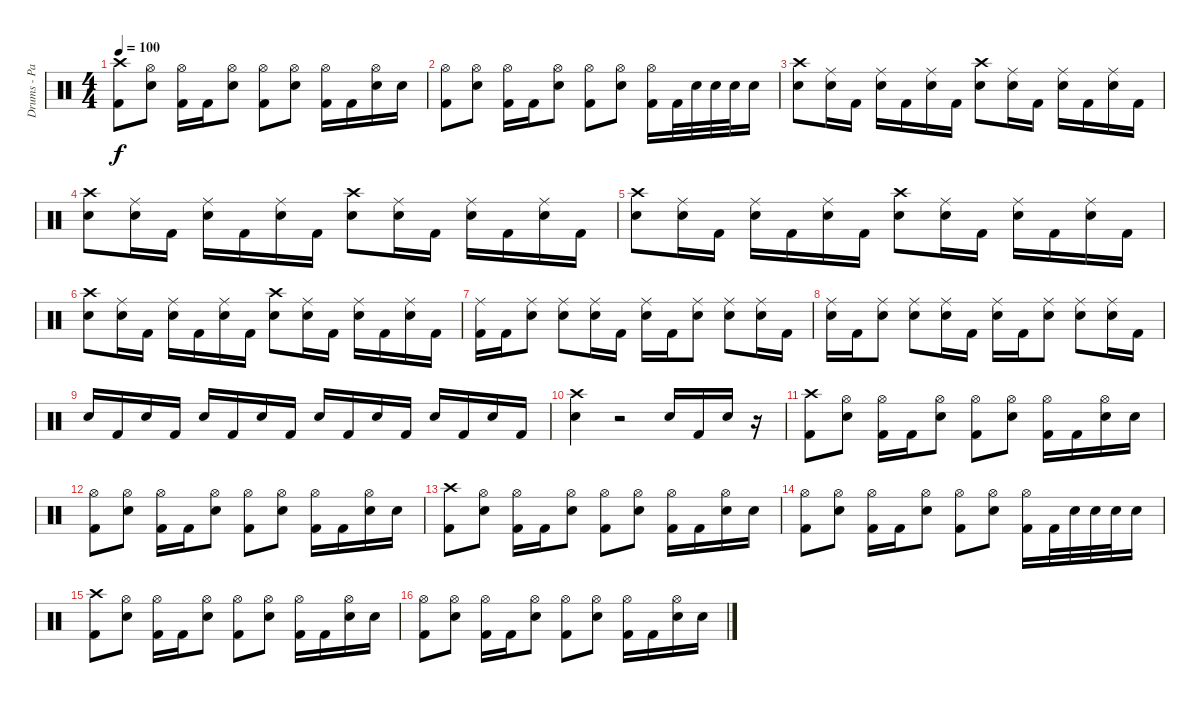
\track ("Drums - Pat Thetic" "Drums - Pa") {instrument percussion}
\staff {score}
\articulation defaults
\ts (4 4)
\tempo 100
\clef neutral
\ks c
("Crash high (hit)" "Kick (hit) 2").8{dy f} ("Hi-Hat (open)" "Electric Snare (hit)").8 ("Hi-Hat (open)" "Kick (hit) 2").16 "Kick (hit) 2".16 ("Hi-Hat (open)" "Electric Snare (hit)").8 ("Hi-Hat (open)" "Kick (hit) 2").8 ("Hi-Hat (open)" "Electric Snare (hit)").8 ("Hi-Hat (open)" "Kick (hit) 2").16 "Kick (hit) 2".16 ("Hi-Hat (open)" "Electric Snare (hit)").16 "Electric Snare (hit)".16 |
("Hi-Hat (open)" "Kick (hit) 2").8 ("Hi-Hat (open)" "Electric Snare (hit)").8 ("Hi-Hat (open)" "Kick (hit) 2").16 "Kick (hit) 2".16 ("Hi-Hat (open)" "Electric Snare (hit)").8 ("Hi-Hat (open)" "Kick (hit) 2").8 ("Hi-Hat (open)" "Electric Snare (hit)").8 ("Hi-Hat (open)" "Kick (hit) 2").16 "Kick (hit) 2".32 "Electric Snare (hit)".32 "Electric Snare (hit)".32 "Electric Snare (hit)".32 "Electric Snare (hit)".16 |
("Crash high (hit)" "Electric Snare (hit)").8 ("Ride (middle)" "Electric Snare (hit)").16 "Kick (hit) 2".16 ("Ride (middle)" "Electric Snare (hit)").16 "Kick (hit) 2".16 ("Ride (middle)" "Electric Snare (hit)").16 "Kick (hit) 2".16 ("Crash high (hit)" "Electric Snare (hit)").8 ("Ride (middle)" "Electric Snare (hit)").16 "Kick (hit) 2".16 ("Ride (middle)" "Electric Snare (hit)").16 "Kick (hit) 2".16 ("Ride (middle)" "Electric Snare (hit)").16 "Kick (hit) 2".16 |
("Crash high (hit)" "Electric Snare (hit)").8 ("Ride (middle)" "Electric Snare (hit)").16 "Kick (hit) 2".16 ("Ride (middle)" "Electric Snare (hit)").16 "Kick (hit) 2".16 ("Ride (middle)" "Electric Snare (hit)").16 "Kick (hit) 2".16 ("Crash high (hit)" "Electric Snare (hit)").8 ("Ride (middle)" "Electric Snare (hit)").16 "Kick (hit) 2".16 ("Ride (middle)" "Electric Snare (hit)").16 "Kick (hit) 2".16 ("Ride (middle)" "Electric Snare (hit)").16 "Kick (hit) 2".16 |
("Crash high (hit)" "Electric Snare (hit)").8 ("Ride (middle)" "Electric Snare (hit)").16 "Kick (hit) 2".16 ("Ride (middle)" "Electric Snare (hit)").16 "Kick (hit) 2".16 ("Ride (middle)" "Electric Snare (hit)").16 "Kick (hit) 2".16 ("Crash high (hit)" "Electric Snare (hit)").8 ("Ride (middle)" "Electric Snare (hit)").16 "Kick (hit) 2".16 ("Ride (middle)" "Electric Snare (hit)").16 "Kick (hit) 2".16 ("Ride (middle)" "Electric Snare (hit)").16 "Kick (hit) 2".16 |
("Crash high (hit)" "Electric Snare (hit)").8 ("Ride (middle)" "Electric Snare (hit)").16 "Kick (hit) 2".16 ("Ride (middle)" "Electric Snare (hit)").16 "Kick (hit) 2".16 ("Ride (middle)" "Electric Snare (hit)").16 "Kick (hit) 2".16 ("Crash high (hit)" "Electric Snare (hit)").8 ("Ride (middle)" "Electric Snare (hit)").16 "Kick (hit) 2".16 ("Ride (middle)" "Electric Snare (hit)").16 "Kick (hit) 2".16 ("Ride (middle)" "Electric Snare (hit)").16 "Kick (hit) 2".16 |
("Ride (middle)" "Kick (hit) 2").16 "Kick (hit) 2".16 ("Ride (middle)" "Electric Snare (hit)").8 ("Ride (middle)" "Electric Snare (hit)").8 ("Ride (middle)" "Electric Snare (hit)").16 "Kick (hit) 2".16 ("Ride (middle)" "Electric Snare (hit)").16 "Kick (hit) 2".16 ("Ride (middle)" "Electric Snare (hit)").8 ("Ride (middle)" "Electric Snare (hit)").8 ("Ride (middle)" "Electric Snare (hit)").16 "Kick (hit) 2".16 |
("Ride (middle)" "Electric Snare (hit)").16 "Kick (hit) 2".16 ("Ride (middle)" "Electric Snare (hit)").8 ("Ride (middle)" "Electric Snare (hit)").8 ("Ride (middle)" "Electric Snare (hit)").16 "Kick (hit) 2".16 ("Ride (middle)" "Electric Snare (hit)").16 "Kick (hit) 2".16 ("Ride (middle)" "Electric Snare (hit)").8 ("Ride (middle)" "Electric Snare (hit)").8 ("Ride (middle)" "Electric Snare (hit)").16 "Kick (hit) 2".16 |
"Electric Snare (hit)".16 "Kick (hit) 2".16 "Electric Snare (hit)".16 "Kick (hit) 2".16 "Electric Snare (hit)".16 "Kick (hit) 2".16 "Electric Snare (hit)".16 "Kick (hit) 2".16 "Electric Snare (hit)".16 "Kick (hit) 2".16 "Electric Snare (hit)".16 "Kick (hit) 2".16 "Electric Snare (hit)".16 "Kick (hit) 2".16 "Electric Snare (hit)".16 "Kick (hit) 2".16 |
("Crash high (hit)" "Electric Snare (hit)").4 r.2 "Electric Snare (hit)".16 "Kick (hit) 2".16 "Electric Snare (hit)".16 r.16 |
("Crash high (hit)" "Kick (hit) 2").8 ("Hi-Hat (open)" "Electric Snare (hit)").8 ("Hi-Hat (open)" "Kick (hit) 2").16 "Kick (hit) 2".16 ("Hi-Hat (open)" "Electric Snare (hit)").8 ("Hi-Hat (open)" "Kick (hit) 2").8 ("Hi-Hat (open)" "Electric Snare (hit)").8 ("Hi-Hat (open)" "Kick (hit) 2").16 "Kick (hit) 2".16 ("Hi-Hat (open)" "Electric Snare (hit)").16 "Electric Snare (hit)".16 |
("Hi-Hat (open)" "Kick (hit) 2").8 ("Hi-Hat (open)" "Electric Snare (hit)").8 ("Hi-Hat (open)" "Kick (hit) 2").16 "Kick (hit) 2".16 ("Hi-Hat (open)" "Electric Snare (hit)").8 ("Hi-Hat (open)" "Kick (hit) 2").8 ("Hi-Hat (open)" "Electric Snare (hit)").8 ("Hi-Hat (open)" "Kick (hit) 2").16 "Kick (hit) 2".16 ("Hi-Hat (open)" "Electric Snare (hit)").16 "Electric Snare (hit)".16 |
("Crash high (hit)" "Kick (hit) 2").8 ("Hi-Hat (open)" "Electric Snare (hit)").8 ("Hi-Hat (open)" "Kick (hit) 2").16 "Kick (hit) 2".16 ("Hi-Hat (open)" "Electric Snare (hit)").8 ("Hi-Hat (open)" "Kick (hit) 2").8 ("Hi-Hat (open)" "Electric Snare (hit)").8 ("Hi-Hat (open)" "Kick (hit) 2").16 "Kick (hit) 2".16 ("Hi-Hat (open)" "Electric Snare (hit)").16 "Electric Snare (hit)".16 |
("Hi-Hat (open)" "Kick (hit) 2").8 ("Hi-Hat (open)" "Electric Snare (hit)").8 ("Hi-Hat (open)" "Kick (hit) 2").16 "Kick (hit) 2".16 ("Hi-Hat (open)" "Electric Snare (hit)").8 ("Hi-Hat (open)" "Kick (hit) 2").8 ("Hi-Hat (open)" "Electric Snare (hit)").8 ("Hi-Hat (open)" "Kick (hit) 2").16 "Kick (hit) 2".32 "Electric Snare (hit)".32 "Electric Snare (hit)".32 "Electric Snare (hit)".32 "Electric Snare (hit)".16 |
("Crash high (hit)" "Kick (hit) 2").8 ("Hi-Hat (open)" "Electric Snare (hit)").8 ("Hi-Hat (open)" "Kick (hit) 2").16 "Kick (hit) 2".16 ("Hi-Hat (open)" "Electric Snare (hit)").8 ("Hi-Hat (open)" "Kick (hit) 2").8 ("Hi-Hat (open)" "Electric Snare (hit)").8 ("Hi-Hat (open)" "Kick (hit) 2").16 "Kick (hit) 2".16 ("Hi-Hat (open)" "Electric Snare (hit)").16 "Electric Snare (hit)".16 |
("Hi-Hat (open)" "Kick (hit) 2").8 ("Hi-Hat (open)" "Electric Snare (hit)").8 ("Hi-Hat (open)" "Kick (hit) 2").16 "Kick (hit) 2".16 ("Hi-Hat (open)" "Electric Snare (hit)").8 ("Hi-Hat (open)" "Kick (hit) 2").8 ("Hi-Hat (open)" "Electric Snare (hit)").8 ("Hi-Hat (open)" "Kick (hit) 2").16 "Kick (hit) 2".16 ("Hi-Hat (open)" "Electric Snare (hit)").16 "Electric Snare (hit)".16
